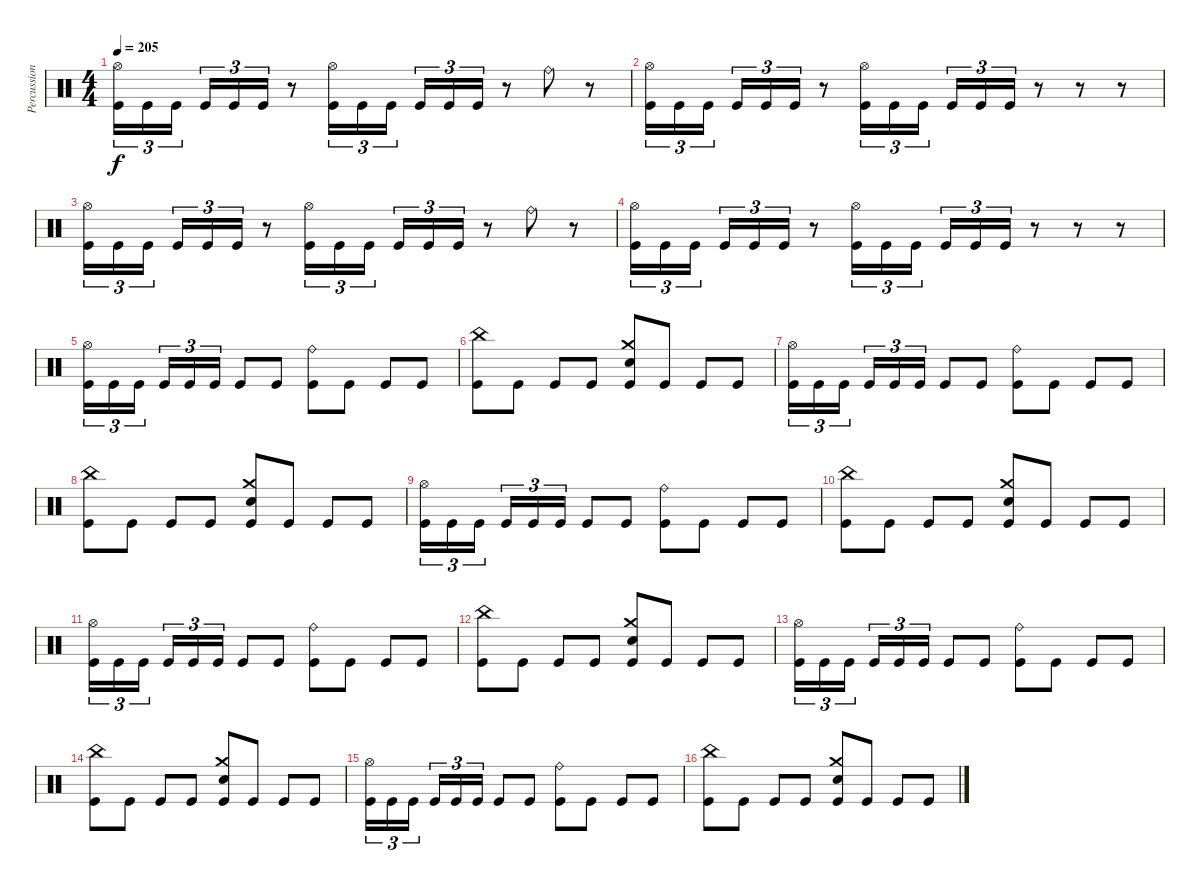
\track ("Percussion" "Percussion") {instrument percussion}
\staff {score}
\articulation defaults
\ts (4 4)
\tempo 205
\clef neutral
\ks c
("Hi-Hat (open)" "Kick (hit)").16{tu (3 2) dy f} "Kick (hit)".16{tu (3 2)} "Kick (hit)".16{tu (3 2)} "Kick (hit)".16{tu (3 2)} "Kick (hit)".16{tu (3 2)} "Kick (hit)".16{tu (3 2)} r.8 ("Hi-Hat (open)" "Kick (hit)").16{tu (3 2)} "Kick (hit)".16{tu (3 2)} "Kick (hit)".16{tu (3 2)} "Kick (hit)".16{tu (3 2)} "Kick (hit)".16{tu (3 2)} "Kick (hit)".16{tu (3 2)} r.8 "Ride (bell)".8 r.8 |
("Hi-Hat (open)" "Kick (hit)").16{tu (3 2)} "Kick (hit)".16{tu (3 2)} "Kick (hit)".16{tu (3 2)} "Kick (hit)".16{tu (3 2)} "Kick (hit)".16{tu (3 2)} "Kick (hit)".16{tu (3 2)} r.8 ("Hi-Hat (open)" "Kick (hit)").16{tu (3 2)} "Kick (hit)".16{tu (3 2)} "Kick (hit)".16{tu (3 2)} "Kick (hit)".16{tu (3 2)} "Kick (hit)".16{tu (3 2)} "Kick (hit)".16{tu (3 2)} r.8 r.8 r.8 |
("Hi-Hat (open)" "Kick (hit)").16{tu (3 2)} "Kick (hit)".16{tu (3 2)} "Kick (hit)".16{tu (3 2)} "Kick (hit)".16{tu (3 2)} "Kick (hit)".16{tu (3 2)} "Kick (hit)".16{tu (3 2)} r.8 ("Hi-Hat (open)" "Kick (hit)").16{tu (3 2)} "Kick (hit)".16{tu (3 2)} "Kick (hit)".16{tu (3 2)} "Kick (hit)".16{tu (3 2)} "Kick (hit)".16{tu (3 2)} "Kick (hit)".16{tu (3 2)} r.8 "Ride (bell)".8 r.8 |
("Hi-Hat (open)" "Kick (hit)").16{tu (3 2)} "Kick (hit)".16{tu (3 2)} "Kick (hit)".16{tu (3 2)} "Kick (hit)".16{tu (3 2)} "Kick (hit)".16{tu (3 2)} "Kick (hit)".16{tu (3 2)} r.8 ("Hi-Hat (open)" "Kick (hit)").16{tu (3 2)} "Kick (hit)".16{tu (3 2)} "Kick (hit)".16{tu (3 2)} "Kick (hit)".16{tu (3 2)} "Kick (hit)".16{tu (3 2)} "Kick (hit)".16{tu (3 2)} r.8 r.8 r.8 |
("Hi-Hat (open)" "Kick (hit)").16{tu (3 2)} "Kick (hit)".16{tu (3 2)} "Kick (hit)".16{tu (3 2)} "Kick (hit)".16{tu (3 2)} "Kick (hit)".16{tu (3 2)} "Kick (hit)".16{tu (3 2)} "Kick (hit)".8 "Kick (hit)".8 ("Ride (bell)" "Kick (hit)").8 "Kick (hit)".8 "Kick (hit)".8 "Kick (hit)".8 |
("China (hit)" "Kick (hit)").8 "Kick (hit)".8 "Kick (hit)".8 "Kick (hit)".8 ("Crash medium (hit)" "Electric Snare (hit)" "Kick (hit)").8 "Kick (hit)".8 "Kick (hit)".8 "Kick (hit)".8 |
("Hi-Hat (open)" "Kick (hit)").16{tu (3 2)} "Kick (hit)".16{tu (3 2)} "Kick (hit)".16{tu (3 2)} "Kick (hit)".16{tu (3 2)} "Kick (hit)".16{tu (3 2)} "Kick (hit)".16{tu (3 2)} "Kick (hit)".8 "Kick (hit)".8 ("Ride (bell)" "Kick (hit)").8 "Kick (hit)".8 "Kick (hit)".8 "Kick (hit)".8 |
("China (hit)" "Kick (hit)").8 "Kick (hit)".8 "Kick (hit)".8 "Kick (hit)".8 ("Crash medium (hit)" "Electric Snare (hit)" "Kick (hit)").8 "Kick (hit)".8 "Kick (hit)".8 "Kick (hit)".8 |
("Hi-Hat (open)" "Kick (hit)").16{tu (3 2)} "Kick (hit)".16{tu (3 2)} "Kick (hit)".16{tu (3 2)} "Kick (hit)".16{tu (3 2)} "Kick (hit)".16{tu (3 2)} "Kick (hit)".16{tu (3 2)} "Kick (hit)".8 "Kick (hit)".8 ("Ride (bell)" "Kick (hit)").8 "Kick (hit)".8 "Kick (hit)".8 "Kick (hit)".8 |
("China (hit)" "Kick (hit)").8 "Kick (hit)".8 "Kick (hit)".8 "Kick (hit)".8 ("Crash medium (hit)" "Electric Snare (hit)" "Kick (hit)").8 "Kick (hit)".8 "Kick (hit)".8 "Kick (hit)".8 |
("Hi-Hat (open)" "Kick (hit)").16{tu (3 2)} "Kick (hit)".16{tu (3 2)} "Kick (hit)".16{tu (3 2)} "Kick (hit)".16{tu (3 2)} "Kick (hit)".16{tu (3 2)} "Kick (hit)".16{tu (3 2)} "Kick (hit)".8 "Kick (hit)".8 ("Ride (bell)" "Kick (hit)").8 "Kick (hit)".8 "Kick (hit)".8 "Kick (hit)".8 |
("China (hit)" "Kick (hit)").8 "Kick (hit)".8 "Kick (hit)".8 "Kick (hit)".8 ("Crash medium (hit)" "Electric Snare (hit)" "Kick (hit)").8 "Kick (hit)".8 "Kick (hit)".8 "Kick (hit)".8 |
("Hi-Hat (open)" "Kick (hit)").16{tu (3 2)} "Kick (hit)".16{tu (3 2)} "Kick (hit)".16{tu (3 2)} "Kick (hit)".16{tu (3 2)} "Kick (hit)".16{tu (3 2)} "Kick (hit)".16{tu (3 2)} "Kick (hit)".8 "Kick (hit)".8 ("Ride (bell)" "Kick (hit)").8 "Kick (hit)".8 "Kick (hit)".8 "Kick (hit)".8 |
("China (hit)" "Kick (hit)").8 "Kick (hit)".8 "Kick (hit)".8 "Kick (hit)".8 ("Crash medium (hit)" "Electric Snare (hit)" "Kick (hit)").8 "Kick (hit)".8 "Kick (hit)".8 "Kick (hit)".8 |
("Hi-Hat (open)" "Kick (hit)").16{tu (3 2)} "Kick (hit)".16{tu (3 2)} "Kick (hit)".16{tu (3 2)} "Kick (hit)".16{tu (3 2)} "Kick (hit)".16{tu (3 2)} "Kick (hit)".16{tu (3 2)} "Kick (hit)".8 "Kick (hit)".8 ("Ride (bell)" "Kick (hit)").8 "Kick (hit)".8 "Kick (hit)".8 "Kick (hit)".8 |
("China (hit)" "Kick (hit)").8 "Kick (hit)".8 "Kick (hit)".8 "Kick (hit)".8 ("Crash medium (hit)" "Electric Snare (hit)" "Kick (hit)").8 "Kick (hit)".8 "Kick (hit)".8 "Kick (hit)".8
